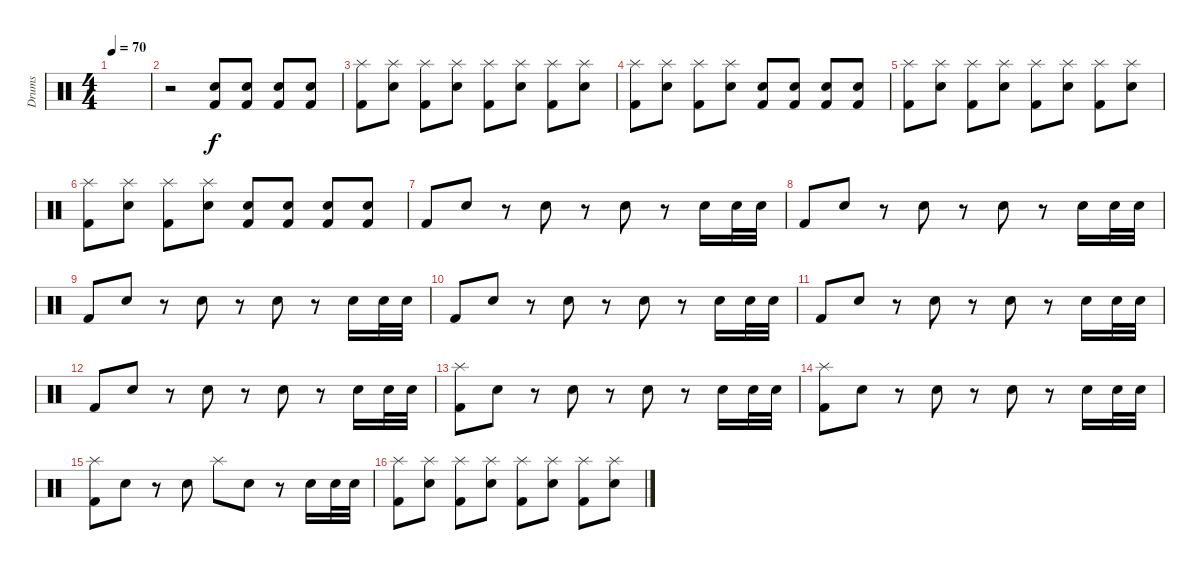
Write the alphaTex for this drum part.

\track ("Drums" "Drums") {instrument percussion}
\staff {score}
\articulation defaults
\ts (4 4)
\tempo 70
\clef neutral
\ks c
|
r.2 ("Snare (hit) 2" "Kick (hit) 2").8 ("Snare (hit) 2" "Kick (hit) 2").8 ("Snare (hit) 2" "Kick (hit) 2").8 ("Snare (hit) 2" "Kick (hit) 2").8 |
("Splash (hit)" "Kick (hit) 2").8 ("Splash (hit)" "Snare (hit) 2").8 ("Splash (hit)" "Kick (hit) 2").8 ("Splash (hit)" "Snare (hit) 2").8 ("Splash (hit)" "Kick (hit) 2").8 ("Splash (hit)" "Snare (hit) 2").8 ("Splash (hit)" "Kick (hit) 2").8 ("Splash (hit)" "Snare (hit) 2").8 |
("Splash (hit)" "Kick (hit) 2").8 ("Splash (hit)" "Snare (hit) 2").8 ("Splash (hit)" "Kick (hit) 2").8 ("Splash (hit)" "Snare (hit) 2").8 ("Snare (hit) 2" "Kick (hit) 2").8 ("Snare (hit) 2" "Kick (hit) 2").8 ("Snare (hit) 2" "Kick (hit) 2").8 ("Snare (hit) 2" "Kick (hit) 2").8 |
("Splash (hit)" "Kick (hit) 2").8 ("Splash (hit)" "Snare (hit) 2").8 ("Splash (hit)" "Kick (hit) 2").8 ("Splash (hit)" "Snare (hit) 2").8 ("Splash (hit)" "Kick (hit) 2").8 ("Splash (hit)" "Snare (hit) 2").8 ("Splash (hit)" "Kick (hit) 2").8 ("Splash (hit)" "Snare (hit) 2").8 |
("Splash (hit)" "Kick (hit) 2").8 ("Splash (hit)" "Snare (hit) 2").8 ("Splash (hit)" "Kick (hit) 2").8 ("Splash (hit)" "Snare (hit) 2").8 ("Snare (hit) 2" "Kick (hit) 2").8 ("Snare (hit) 2" "Kick (hit) 2").8 ("Snare (hit) 2" "Kick (hit) 2").8 ("Snare (hit) 2" "Kick (hit) 2").8 |
"Kick (hit) 2".8 "Electric Snare (hit)".8 r.8 "Electric Snare (hit)".8 r.8 "Electric Snare (hit)".8 r.8 "Electric Snare (hit)".16 "Electric Snare (hit)".32 "Electric Snare (hit)".32 |
"Kick (hit) 2".8 "Electric Snare (hit)".8 r.8 "Electric Snare (hit)".8 r.8 "Electric Snare (hit)".8 r.8 "Electric Snare (hit)".16 "Electric Snare (hit)".32 "Electric Snare (hit)".32 |
"Kick (hit) 2".8 "Electric Snare (hit)".8 r.8 "Electric Snare (hit)".8 r.8 "Electric Snare (hit)".8 r.8 "Electric Snare (hit)".16 "Electric Snare (hit)".32 "Electric Snare (hit)".32 |
"Kick (hit) 2".8 "Electric Snare (hit)".8 r.8 "Electric Snare (hit)".8 r.8 "Electric Snare (hit)".8 r.8 "Electric Snare (hit)".16 "Electric Snare (hit)".32 "Electric Snare (hit)".32 |
"Kick (hit) 2".8 "Electric Snare (hit)".8 r.8 "Electric Snare (hit)".8 r.8 "Electric Snare (hit)".8 r.8 "Electric Snare (hit)".16 "Electric Snare (hit)".32 "Electric Snare (hit)".32 |
"Kick (hit) 2".8 "Electric Snare (hit)".8 r.8 "Electric Snare (hit)".8 r.8 "Electric Snare (hit)".8 r.8 "Electric Snare (hit)".16 "Electric Snare (hit)".32 "Electric Snare (hit)".32 |
("Splash (hit)" "Kick (hit) 2").8 "Electric Snare (hit)".8 r.8 "Electric Snare (hit)".8 r.8 "Electric Snare (hit)".8 r.8 "Electric Snare (hit)".16 "Electric Snare (hit)".32 "Electric Snare (hit)".32 |
("Splash (hit)" "Kick (hit) 2").8 "Electric Snare (hit)".8 r.8 "Electric Snare (hit)".8 r.8 "Electric Snare (hit)".8 r.8 "Electric Snare (hit)".16 "Electric Snare (hit)".32 "Electric Snare (hit)".32 |
("Splash (hit)" "Kick (hit) 2").8 "Electric Snare (hit)".8 r.8 "Electric Snare (hit)".8 "Splash (hit)".8 "Electric Snare (hit)".8 r.8 "Electric Snare (hit)".16 "Electric Snare (hit)".32 "Electric Snare (hit)".32 |
("Splash (hit)" "Kick (hit) 2").8 ("Splash (hit)" "Snare (hit) 2").8 ("Splash (hit)" "Kick (hit) 2").8 ("Splash (hit)" "Snare (hit) 2").8 ("Splash (hit)" "Kick (hit) 2").8 ("Splash (hit)" "Snare (hit) 2").8 ("Splash (hit)" "Kick (hit) 2").8 ("Splash (hit)" "Snare (hit) 2").8
